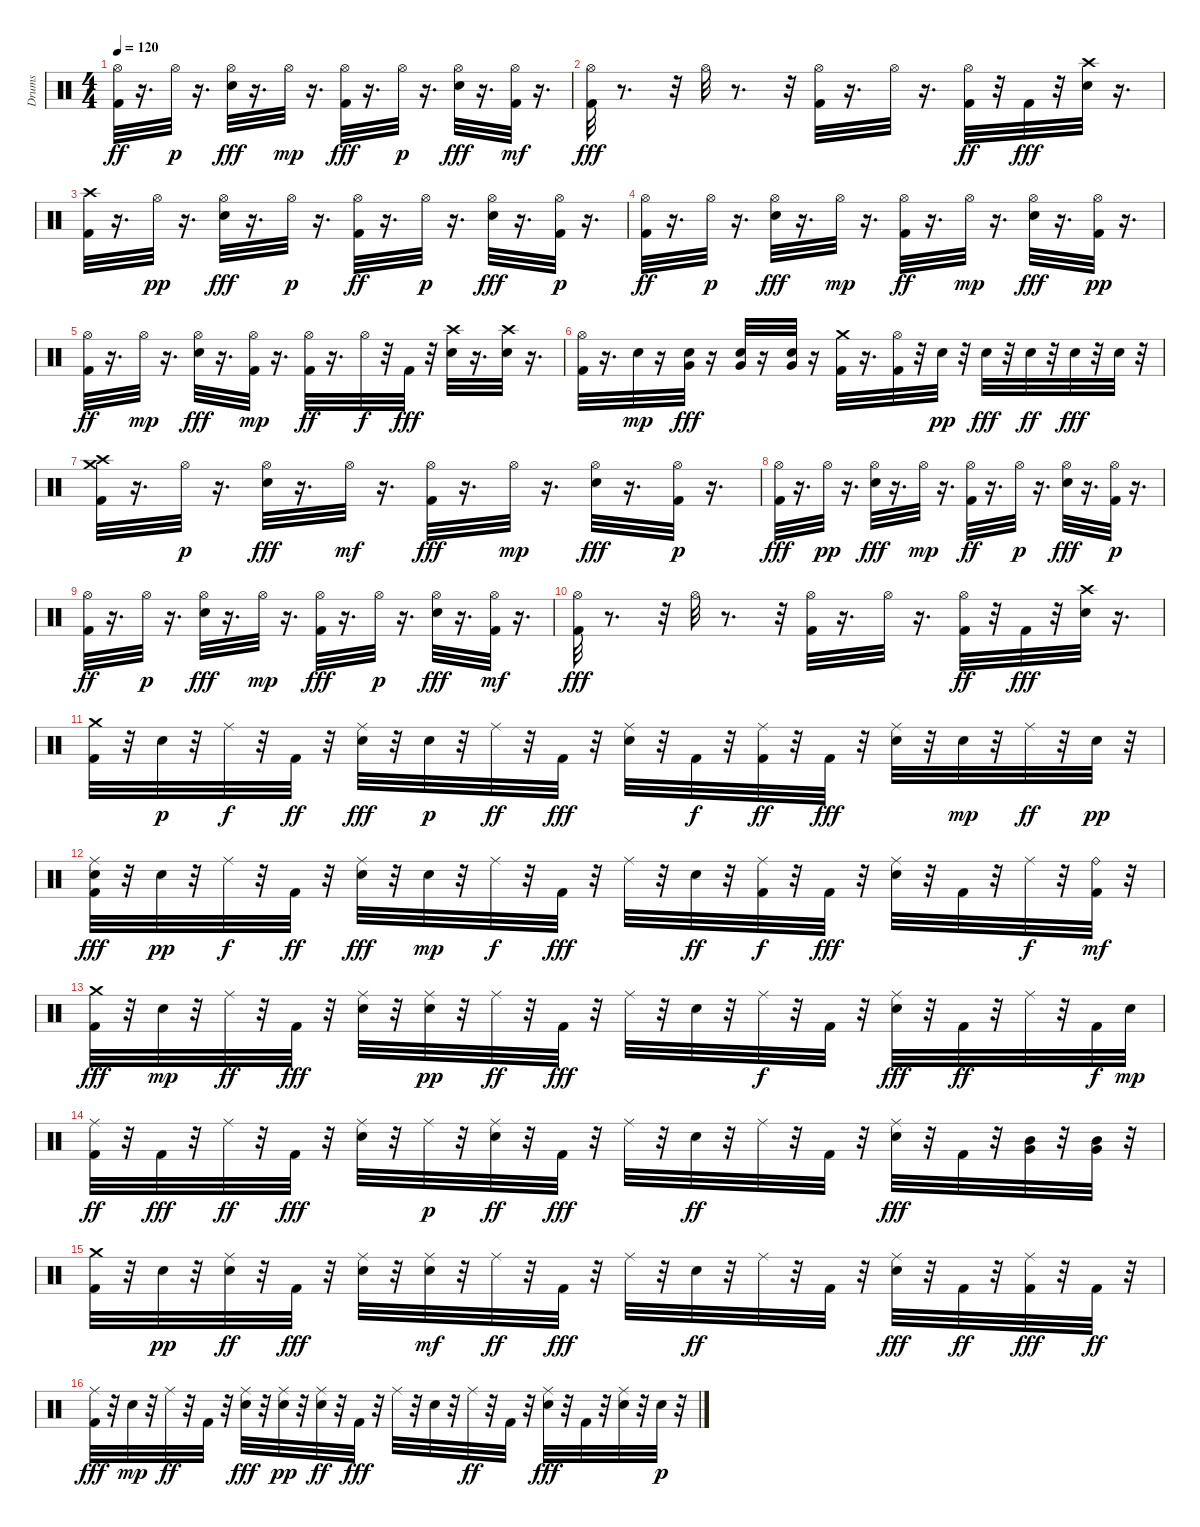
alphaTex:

\track ("Drums" "Drums") {instrument percussion}
\staff {score}
\articulation defaults
\ts (4 4)
\tempo 120
\clef neutral
\ks c
("Kick (hit) 2" "Hi-Hat (open)").32{dy ff} r.16{d} "Hi-Hat (open)".32{dy p} r.16{d} ("Snare (hit) 2" "Hi-Hat (open)").32{dy fff} r.16{d} "Hi-Hat (open)".32{dy mp} r.16{d} ("Kick (hit) 2" "Hi-Hat (open)").32{dy fff} r.16{d} "Hi-Hat (open)".32{dy p} r.16{d} ("Snare (hit) 2" "Hi-Hat (open)").32{dy fff} r.16{d} ("Kick (hit) 2" "Hi-Hat (open)").32{dy mf} r.16{d} |
("Kick (hit) 2" "Hi-Hat (open)").32{dy fff} r.8{d} r.32 "Hi-Hat (open)".32 r.8{d} r.32 ("Kick (hit) 2" "Hi-Hat (open)").32 r.16{d} "Hi-Hat (open)".32 r.16{d} ("Kick (hit) 2" "Hi-Hat (open)").32{dy ff} r.32 "Kick (hit) 2".32{dy fff} r.32 ("Crash high (hit)" "Snare (hit) 2").32 r.16{d} |
("Crash high (hit)" "Kick (hit) 2").32 r.16{d} "Hi-Hat (open)".32{dy pp} r.16{d} ("Snare (hit) 2" "Hi-Hat (open)").32{dy fff} r.16{d} "Hi-Hat (open)".32{dy p} r.16{d} ("Kick (hit) 2" "Hi-Hat (open)").32{dy ff} r.16{d} "Hi-Hat (open)".32{dy p} r.16{d} ("Snare (hit) 2" "Hi-Hat (open)").32{dy fff} r.16{d} ("Kick (hit) 2" "Hi-Hat (open)").32{dy p} r.16{d} |
("Kick (hit) 2" "Hi-Hat (open)").32{dy ff} r.16{d} "Hi-Hat (open)".32{dy p} r.16{d} ("Snare (hit) 2" "Hi-Hat (open)").32{dy fff} r.16{d} "Hi-Hat (open)".32{dy mp} r.16{d} ("Kick (hit) 2" "Hi-Hat (open)").32{dy ff} r.16{d} "Hi-Hat (open)".32{dy mp} r.16{d} ("Snare (hit) 2" "Hi-Hat (open)").32{dy fff} r.16{d} ("Kick (hit) 2" "Hi-Hat (open)").32{dy pp} r.16{d} |
("Kick (hit) 2" "Hi-Hat (open)").32{dy ff} r.16{d} "Hi-Hat (open)".32{dy mp} r.16{d} ("Snare (hit) 2" "Hi-Hat (open)").32{dy fff} r.16{d} ("Kick (hit) 2" "Hi-Hat (open)").32{dy mp} r.16{d} ("Kick (hit) 2" "Hi-Hat (open)").32{dy ff} r.16{d} "Hi-Hat (open)".32{dy f} r.32 "Kick (hit) 2".32{dy fff} r.32 ("Snare (hit) 2" "Crash high (hit)").32 r.16{d} ("Snare (hit) 2" "Crash high (hit)").32 r.16{d} |
("Kick (hit) 2" "Hi-Hat (open)").32 r.16{d} "Snare (hit) 2".32{dy mp} r.16 ("Snare (hit) 2" "Very Low Tom (hit)").32{dy fff} r.16 ("Snare (hit) 2" "Very Low Tom (hit)").32 r.16 ("Snare (hit) 2" "Very Low Tom (hit)").32 r.16 ("Kick (hit) 2" "Crash medium (hit)").32 r.16{d} ("Kick (hit) 2" "Hi-Hat (open)").32 r.32 "Snare (hit) 2".32{dy pp} r.32 "Snare (hit) 2".32{dy fff} r.32 "Snare (hit) 2".32{dy ff} r.32 "Snare (hit) 2".32{dy fff} r.32 "Snare (hit) 2".32 r.32 |
("Crash high (hit)" "Kick (hit) 2" "Crash medium (hit)").32 r.16{d} "Hi-Hat (open)".32{dy p} r.16{d} ("Snare (hit) 2" "Hi-Hat (open)").32{dy fff} r.16{d} "Hi-Hat (open)".32{dy mf} r.16{d} ("Hi-Hat (open)" "Kick (hit) 2").32{dy fff} r.16{d} "Hi-Hat (open)".32{dy mp} r.16{d} ("Snare (hit) 2" "Hi-Hat (open)").32{dy fff} r.16{d} ("Kick (hit) 2" "Hi-Hat (open)").32{dy p} r.16{d} |
("Kick (hit) 2" "Hi-Hat (open)").32{dy fff} r.16{d} "Hi-Hat (open)".32{dy pp} r.16{d} ("Snare (hit) 2" "Hi-Hat (open)").32{dy fff} r.16{d} "Hi-Hat (open)".32{dy mp} r.16{d} ("Kick (hit) 2" "Hi-Hat (open)").32{dy ff} r.16{d} "Hi-Hat (open)".32{dy p} r.16{d} ("Snare (hit) 2" "Hi-Hat (open)").32{dy fff} r.16{d} ("Kick (hit) 2" "Hi-Hat (open)").32{dy p} r.16{d} |
("Kick (hit) 2" "Hi-Hat (open)").32{dy ff} r.16{d} "Hi-Hat (open)".32{dy p} r.16{d} ("Snare (hit) 2" "Hi-Hat (open)").32{dy fff} r.16{d} "Hi-Hat (open)".32{dy mp} r.16{d} ("Kick (hit) 2" "Hi-Hat (open)").32{dy fff} r.16{d} "Hi-Hat (open)".32{dy p} r.16{d} ("Snare (hit) 2" "Hi-Hat (open)").32{dy fff} r.16{d} ("Kick (hit) 2" "Hi-Hat (open)").32{dy mf} r.16{d} |
("Kick (hit) 2" "Hi-Hat (open)").32{dy fff} r.8{d} r.32 "Hi-Hat (open)".32 r.8{d} r.32 ("Kick (hit) 2" "Hi-Hat (open)").32 r.16{d} "Hi-Hat (open)".32 r.16{d} ("Kick (hit) 2" "Hi-Hat (open)").32{dy ff} r.32 "Kick (hit) 2".32{dy fff} r.32 ("Crash high (hit)" "Snare (hit) 2").32 r.16{d} |
("Crash medium (hit)" "Kick (hit) 2").32 r.32 "Snare (hit) 2".32{dy p} r.32 "Ride (middle)".32{dy f} r.32 "Kick (hit) 2".32{dy ff} r.32 ("Snare (hit) 2" "Ride (middle)").32{dy fff} r.32 "Snare (hit) 2".32{dy p} r.32 "Ride (middle)".32{dy ff} r.32 "Kick (hit) 2".32{dy fff} r.32 ("Snare (hit) 2" "Ride (middle)").32 r.32 "Kick (hit) 2".32{dy f} r.32 ("Ride (middle)" "Kick (hit) 2").32{dy ff} r.32 "Kick (hit) 2".32{dy fff} r.32 ("Snare (hit) 2" "Ride (middle)").32 r.32 "Snare (hit) 2".32{dy mp} r.32 "Ride (middle)".32{dy ff} r.32 "Snare (hit) 2".32{dy pp} r.32 |
("Snare (hit) 2" "Kick (hit) 2" "Ride (middle)").32{dy fff} r.32 "Snare (hit) 2".32{dy pp} r.32 "Ride (middle)".32{dy f} r.32 "Kick (hit) 2".32{dy ff} r.32 ("Ride (middle)" "Snare (hit) 2").32{dy fff} r.32 "Snare (hit) 2".32{dy mp} r.32 "Ride (middle)".32{dy f} r.32 "Kick (hit) 2".32{dy fff} r.32 "Ride (middle)".32 r.32 "Snare (hit) 2".32{dy ff} r.32 ("Kick (hit) 2" "Ride (middle)").32{dy f} r.32 "Kick (hit) 2".32{dy fff} r.32 ("Snare (hit) 2" "Ride (middle)").32 r.32 "Kick (hit) 2".32 r.32 "Ride (middle)".32{dy f} r.32 ("Kick (hit) 2" "Ride (bell)").32{dy mf} r.32 |
("Crash medium (hit)" "Kick (hit) 2").32{dy fff} r.32 "Snare (hit) 2".32{dy mp} r.32 "Ride (middle)".32{dy ff} r.32 "Kick (hit) 2".32{dy fff} r.32 ("Snare (hit) 2" "Ride (middle)").32 r.32 ("Snare (hit) 2" "Ride (middle)").32{dy pp} r.32 "Ride (middle)".32{dy ff} r.32 "Kick (hit) 2".32{dy fff} r.32 "Ride (middle)".32 r.32 "Snare (hit) 2".32 r.32 "Ride (middle)".32{dy f} r.32 "Kick (hit) 2".32 r.32 ("Snare (hit) 2" "Ride (middle)").32{dy fff} r.32 "Kick (hit) 2".32{dy ff} r.32 "Ride (middle)".32 r.32 "Kick (hit) 2".32{dy f} "Snare (hit) 2".32{dy mp} |
("Ride (middle)" "Kick (hit) 2").32{dy ff} r.32 "Kick (hit) 2".32{dy fff} r.32 "Ride (middle)".32{dy ff} r.32 "Kick (hit) 2".32{dy fff} r.32 ("Ride (middle)" "Snare (hit) 2").32 r.32 "Ride (middle)".32{dy p} r.32 ("Snare (hit) 2" "Ride (middle)").32{dy ff} r.32 "Kick (hit) 2".32{dy fff} r.32 "Ride (middle)".32 r.32 "Snare (hit) 2".32{dy ff} r.32 "Ride (middle)".32 r.32 "Kick (hit) 2".32 r.32 ("Snare (hit) 2" "Ride (middle)").32{dy fff} r.32 "Kick (hit) 2".32 r.32 ("Very Low Tom (hit)" "Mid Tom (hit)").32 r.32 ("Very Low Tom (hit)" "Mid Tom (hit)").32 r.32 |
("Crash medium (hit)" "Kick (hit) 2").32 r.32 "Snare (hit) 2".32{dy pp} r.32 ("Snare (hit) 2" "Ride (middle)").32{dy ff} r.32 "Kick (hit) 2".32{dy fff} r.32 ("Snare (hit) 2" "Ride (middle)").32 r.32 ("Snare (hit) 2" "Ride (middle)").32{dy mf} r.32 "Ride (middle)".32{dy ff} r.32 "Kick (hit) 2".32{dy fff} r.32 "Ride (middle)".32 r.32 "Snare (hit) 2".32{dy ff} r.32 "Ride (middle)".32 r.32 "Kick (hit) 2".32 r.32 ("Snare (hit) 2" "Ride (middle)").32{dy fff} r.32 "Kick (hit) 2".32{dy ff} r.32 ("Kick (hit) 2" "Ride (middle)").32{dy fff} r.32 "Kick (hit) 2".32{dy ff} r.32 |
("Kick (hit) 2" "Ride (middle)").32{dy fff} r.32 "Snare (hit) 2".32{dy mp} r.32 "Ride (middle)".32{dy ff} r.32 "Kick (hit) 2".32 r.32 ("Snare (hit) 2" "Ride (middle)").32{dy fff} r.32 ("Snare (hit) 2" "Ride (middle)").32{dy pp} r.32 ("Snare (hit) 2" "Ride (middle)").32{dy ff} r.32 "Kick (hit) 2".32{dy fff} r.32 "Ride (middle)".32 r.32 "Snare (hit) 2".32 r.32 "Ride (middle)".32{dy ff} r.32 "Kick (hit) 2".32 r.32 ("Snare (hit) 2" "Ride (middle)").32{dy fff} r.32 "Kick (hit) 2".32 r.32 ("Snare (hit) 2" "Ride (middle)").32 r.32 "Snare (hit) 2".32{dy p} r.32
